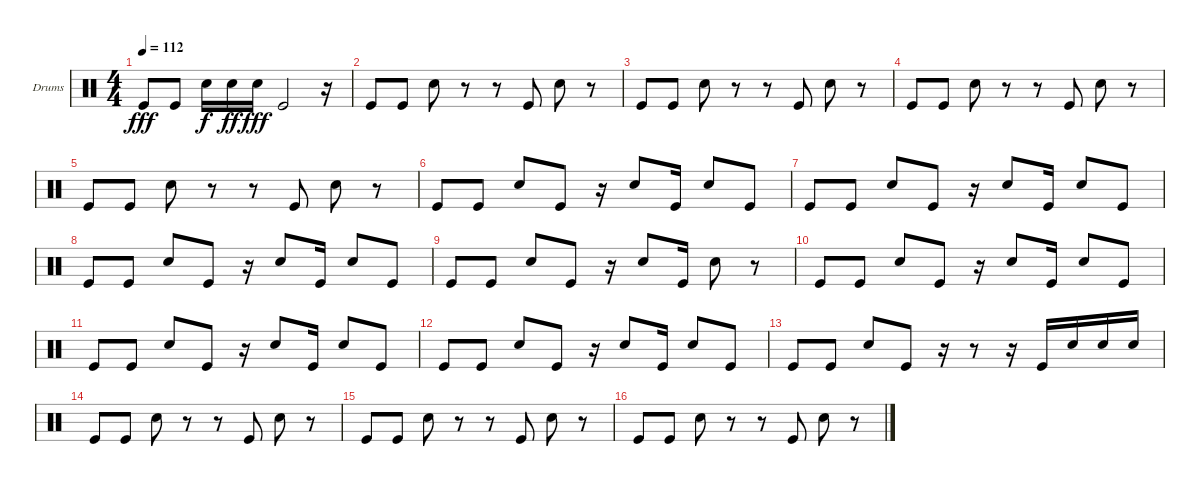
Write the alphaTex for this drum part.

\defaultSystemsLayout 4
\bracketExtendMode groupsimilarinstruments
\firstSystemTrackNameOrientation horizontal
\otherSystemsTrackNameOrientation horizontal
\track ("Пашок" "Drums") {instrument percussion}
\staff {score}
\articulation defaults
\ts (4 4)
\tempo 112
\clef neutral
\ks c "Kick (hit)".8{dy fff} "Kick (hit)".8 "Snare (hit) 2".16{dy f} "Snare (hit) 2".16{dy ff} "Snare (hit) 2".16{dy fff} "Kick (hit)".2
r.16 |
"Kick (hit)".8 "Kick (hit)".8 "Snare (hit) 2".8 r.8 r.8 "Kick (hit)".8 "Snare (hit) 2".8 r.8 |
"Kick (hit)".8 "Kick (hit)".8 "Snare (hit) 2".8 r.8 r.8 "Kick (hit)".8 "Snare (hit) 2".8 r.8 |
"Kick (hit)".8 "Kick (hit)".8 "Snare (hit) 2".8 r.8 r.8 "Kick (hit)".8 "Snare (hit) 2".8 r.8 |
"Kick (hit)".8 "Kick (hit)".8 "Snare (hit) 2".8 r.8 r.8 "Kick (hit)".8 "Snare (hit) 2".8 r.8 |
"Kick (hit)".8 "Kick (hit)".8 "Snare (hit) 2".8 "Kick (hit)".8 r.16 "Snare (hit) 2".8 "Kick (hit)".16 "Snare (hit) 2".8 "Kick (hit)".8 |
"Kick (hit)".8 "Kick (hit)".8 "Snare (hit) 2".8 "Kick (hit)".8 r.16 "Snare (hit) 2".8 "Kick (hit)".16 "Snare (hit) 2".8 "Kick (hit)".8 |
"Kick (hit)".8 "Kick (hit)".8 "Snare (hit) 2".8 "Kick (hit)".8 r.16 "Snare (hit) 2".8 "Kick (hit)".16 "Snare (hit) 2".8 "Kick (hit)".8 |
"Kick (hit)".8 "Kick (hit)".8 "Snare (hit) 2".8 "Kick (hit)".8 r.16 "Snare (hit) 2".8 "Kick (hit)".16 "Snare (hit) 2".8 r.8 |
"Kick (hit)".8 "Kick (hit)".8 "Snare (hit) 2".8 "Kick (hit)".8 r.16 "Snare (hit) 2".8 "Kick (hit)".16 "Snare (hit) 2".8 "Kick (hit)".8 |
"Kick (hit)".8 "Kick (hit)".8 "Snare (hit) 2".8 "Kick (hit)".8 r.16 "Snare (hit) 2".8 "Kick (hit)".16 "Snare (hit) 2".8 "Kick (hit)".8 |
"Kick (hit)".8 "Kick (hit)".8 "Snare (hit) 2".8 "Kick (hit)".8 r.16 "Snare (hit) 2".8 "Kick (hit)".16 "Snare (hit) 2".8 "Kick (hit)".8 |
"Kick (hit)".8 "Kick (hit)".8 "Snare (hit) 2".8 "Kick (hit)".8 r.16 r.8 r.16 "Kick (hit)".16 "Snare (hit) 2".16 "Snare (hit) 2".16 "Snare (hit) 2".16 |
"Kick (hit)".8 "Kick (hit)".8 "Snare (hit) 2".8 r.8 r.8 "Kick (hit)".8 "Snare (hit) 2".8 r.8 |
"Kick (hit)".8 "Kick (hit)".8 "Snare (hit) 2".8 r.8 r.8 "Kick (hit)".8 "Snare (hit) 2".8 r.8 |
"Kick (hit)".8 "Kick (hit)".8 "Snare (hit) 2".8 r.8 r.8 "Kick (hit)".8 "Snare (hit) 2".8 r.8
